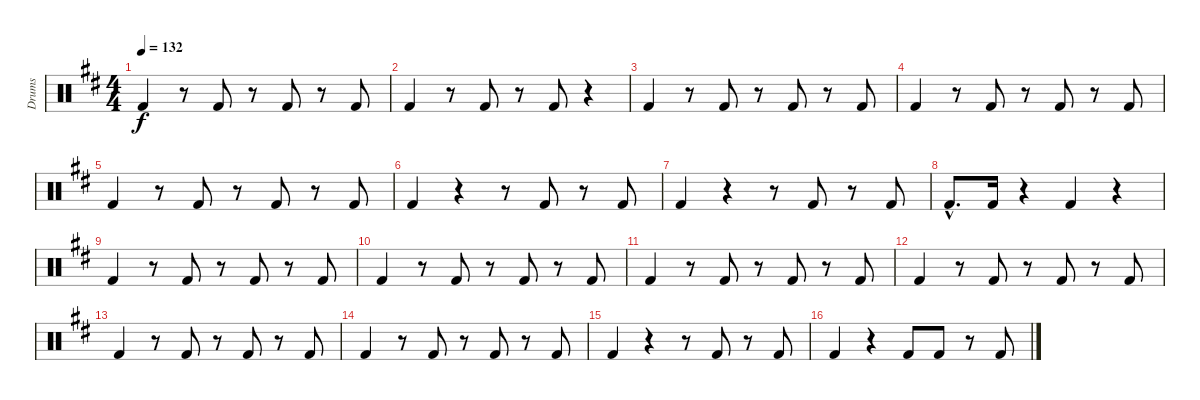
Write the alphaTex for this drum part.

\track ("Drums" "Drums") {instrument percussion}
\staff {score}
\articulation defaults
\ts (4 4)
\tempo 132
\clef neutral
\ks d "Kick (hit) 2".4{dy f}
r.8 "Kick (hit) 2".8 r.8 "Kick (hit) 2".8 r.8 "Kick (hit) 2".8 |
"Kick (hit) 2".4 r.8 "Kick (hit) 2".8 r.8 "Kick (hit) 2".8 r.4 |
"Kick (hit) 2".4 r.8 "Kick (hit) 2".8 r.8 "Kick (hit) 2".8 r.8 "Kick (hit) 2".8 |
"Kick (hit) 2".4 r.8 "Kick (hit) 2".8 r.8 "Kick (hit) 2".8 r.8 "Kick (hit) 2".8 |
"Kick (hit) 2".4 r.8 "Kick (hit) 2".8 r.8 "Kick (hit) 2".8 r.8 "Kick (hit) 2".8 |
"Kick (hit) 2".4 r.4 r.8 "Kick (hit) 2".8 r.8 "Kick (hit) 2".8 |
"Kick (hit) 2".4 r.4 r.8 "Kick (hit) 2".8 r.8 "Kick (hit) 2".8 |
"Kick (hit) 2"{hac}.8{d} "Kick (hit) 2".16 r.4 "Kick (hit) 2".4 r.4 |
"Kick (hit) 2".4 r.8 "Kick (hit) 2".8 r.8 "Kick (hit) 2".8 r.8 "Kick (hit) 2".8 |
"Kick (hit) 2".4 r.8 "Kick (hit) 2".8 r.8 "Kick (hit) 2".8 r.8 "Kick (hit) 2".8 |
"Kick (hit) 2".4 r.8 "Kick (hit) 2".8 r.8 "Kick (hit) 2".8 r.8 "Kick (hit) 2".8 |
"Kick (hit) 2".4 r.8 "Kick (hit) 2".8 r.8 "Kick (hit) 2".8 r.8 "Kick (hit) 2".8 |
"Kick (hit) 2".4 r.8 "Kick (hit) 2".8 r.8 "Kick (hit) 2".8 r.8 "Kick (hit) 2".8 |
"Kick (hit) 2".4 r.8 "Kick (hit) 2".8 r.8 "Kick (hit) 2".8 r.8 "Kick (hit) 2".8 |
"Kick (hit) 2".4 r.4 r.8 "Kick (hit) 2".8 r.8 "Kick (hit) 2".8 |
"Kick (hit) 2".4 r.4 "Kick (hit) 2".8 "Kick (hit) 2".8 r.8 "Kick (hit) 2".8
